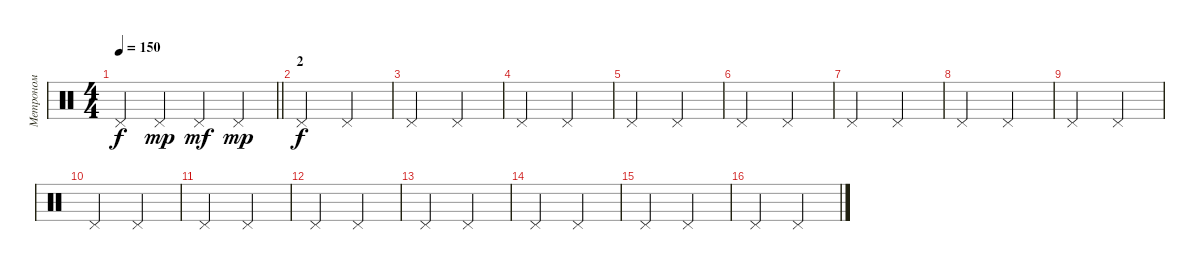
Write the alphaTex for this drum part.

\track ("Метроном" "Метроном") {mute instrument percussion}
\staff {score}
\articulation defaults
\ts (4 4)
\tempo 150
\clef neutral
\barLineRight lightlight
\ks c "Pedal Hi-Hat (hit)".4{dy f} "Pedal Hi-Hat (hit)".4{dy mp} "Pedal Hi-Hat (hit)".4{dy mf} "Pedal Hi-Hat (hit)".4{dy mp}
|
\section ("" "2")
"Pedal Hi-Hat (hit)".2{dy f} "Pedal Hi-Hat (hit)".2 |
"Pedal Hi-Hat (hit)".2 "Pedal Hi-Hat (hit)".2 |
"Pedal Hi-Hat (hit)".2 "Pedal Hi-Hat (hit)".2 |
"Pedal Hi-Hat (hit)".2 "Pedal Hi-Hat (hit)".2 |
"Pedal Hi-Hat (hit)".2 "Pedal Hi-Hat (hit)".2 |
"Pedal Hi-Hat (hit)".2 "Pedal Hi-Hat (hit)".2 |
"Pedal Hi-Hat (hit)".2 "Pedal Hi-Hat (hit)".2 |
"Pedal Hi-Hat (hit)".2 "Pedal Hi-Hat (hit)".2 |
"Pedal Hi-Hat (hit)".2 "Pedal Hi-Hat (hit)".2 |
"Pedal Hi-Hat (hit)".2 "Pedal Hi-Hat (hit)".2 |
"Pedal Hi-Hat (hit)".2 "Pedal Hi-Hat (hit)".2 |
"Pedal Hi-Hat (hit)".2 "Pedal Hi-Hat (hit)".2 |
"Pedal Hi-Hat (hit)".2 "Pedal Hi-Hat (hit)".2 |
"Pedal Hi-Hat (hit)".2 "Pedal Hi-Hat (hit)".2 |
"Pedal Hi-Hat (hit)".2 "Pedal Hi-Hat (hit)".2
